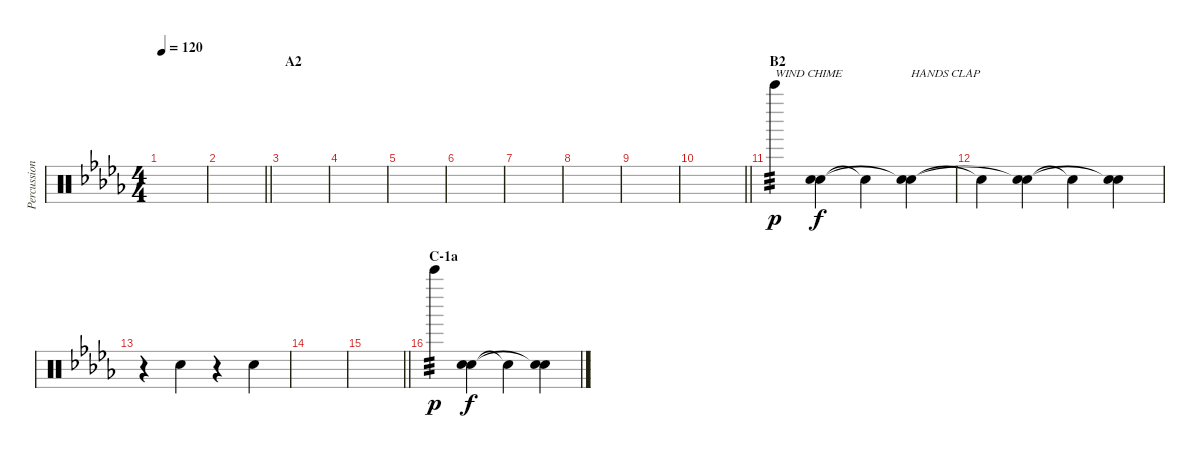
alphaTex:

\track ("Percussion B1 (Tainaka Ritsu)" "Percussion") {instrument percussion}
\staff {score}
\articulation defaults
\ts (4 4)
\tempo 120
\clef neutral
\ks db
|
\barLineRight lightlight
|
\section ("" "A2")
|
|
|
|
|
|
|
\barLineRight lightlight
|
\section ("" "B2")
"Bell Tree (hit)".4{txt "WIND CHIME" tp 3 dy p} ("Hand Clap (hit)" "Snare (hit)").4{dy f} "Snare (hit)"{t}.4 ("Hand Clap (hit)" "Snare (hit)"{t}).4{txt "HANDS CLAP"} |
"Snare (hit)"{t}.4 ("Hand Clap (hit)" "Snare (hit)"{t}).4 "Snare (hit)"{t}.4 ("Hand Clap (hit)" "Snare (hit)"{t}).4 |
r.4 "Hand Clap (hit)".4 r.4 "Hand Clap (hit)".4 |
|
\barLineRight lightlight
|
\section ("" "C-1a")
"Bell Tree (hit)".4{tp 3 dy p} ("Hand Clap (hit)" "Snare (hit)").4{dy f} "Snare (hit)"{t}.4 ("Hand Clap (hit)" "Snare (hit)"{t}).4
